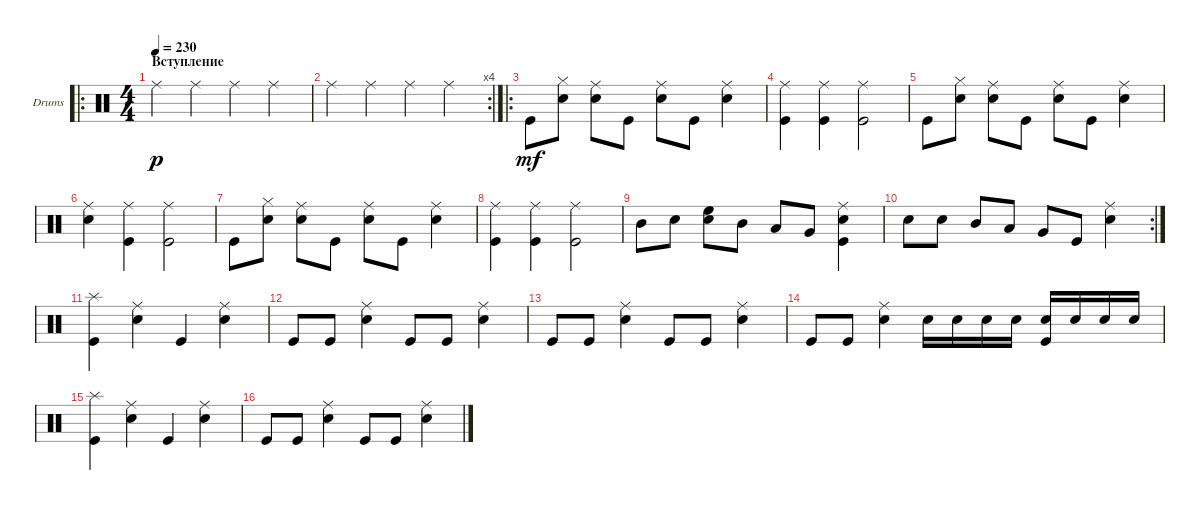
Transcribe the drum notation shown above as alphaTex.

\defaultSystemsLayout 4
\bracketExtendMode groupsimilarinstruments
\firstSystemTrackNameOrientation horizontal
\otherSystemsTrackNameOrientation horizontal
\track ("Drumkit" "Drums") {instrument percussion}
\staff {score}
\articulation defaults
\ro
\ts (4 4)
\section ("" "Вступление")
\tempo 230
\clef neutral
\ks c "Ride (middle)".4{dy p} "Ride (middle)".4 "Ride (middle)".4 "Ride (middle)".4
|
\rc 4 "Ride (middle)".4 "Ride (middle)".4 "Ride (middle)".4 "Ride (middle)".4
|
\ro "Kick (hit)".8{dy mf}
("Snare (hit) 2" "Hi-Hat (closed)").8 ("Snare (hit) 2" "Ride (middle)").8 "Kick (hit)".8 ("Snare (hit) 2" "Ride (middle)").8 "Kick (hit)".8 ("Snare (hit) 2" "Ride (middle)").4 |
("Kick (hit)" "Ride (middle)").4 ("Kick (hit)" "Ride (middle)").4 ("Kick (hit)" "Ride (middle)").2 |
"Kick (hit)".8 ("Snare (hit) 2" "Hi-Hat (closed)").8 ("Snare (hit) 2" "Ride (middle)").8 "Kick (hit)".8 ("Snare (hit) 2" "Ride (middle)").8 "Kick (hit)".8 ("Snare (hit) 2" "Ride (middle)").4 |
("Ride (middle)" "Snare (hit) 2").4 ("Kick (hit)" "Ride (middle)").4 ("Kick (hit)" "Ride (middle)").2 |
"Kick (hit)".8 ("Snare (hit) 2" "Hi-Hat (closed)").8 ("Snare (hit) 2" "Ride (middle)").8 "Kick (hit)".8 ("Snare (hit) 2" "Ride (middle)").8 "Kick (hit)".8 ("Snare (hit) 2" "Ride (middle)").4 |
("Kick (hit)" "Ride (middle)").4 ("Kick (hit)" "Ride (middle)").4 ("Kick (hit)" "Ride (middle)").2 |
"Mid Tom (hit)".8 "Snare (hit) 2".8 ("Snare (hit) 2" "High Floor Tom (hit)").8 "Mid Tom (hit)".8 "Low Tom (hit)".8 "Very Low Tom (hit)".8 ("Kick (hit)" "Ride (middle)" "Snare (hit) 2").4 |
\rc 2 "Snare (hit) 2".8 "Snare (hit) 2".8 "Mid Tom (hit)".8 "Low Tom (hit)".8 "Very Low Tom (hit)".8 "Kick (hit)".8
("Snare (hit) 2" "Ride (middle)").4 |
("Kick (hit)" "Splash (hit)").4 ("Snare (hit) 2" "Ride (middle)").4 "Kick (hit)".4 ("Snare (hit) 2" "Ride (middle)").4 |
"Kick (hit)".8 "Kick (hit)".8 ("Snare (hit) 2" "Ride (middle)").4 "Kick (hit)".8 "Kick (hit)".8 ("Snare (hit) 2" "Ride (middle)").4 |
"Kick (hit)".8 "Kick (hit)".8 ("Snare (hit) 2" "Ride (middle)").4 "Kick (hit)".8 "Kick (hit)".8 ("Snare (hit) 2" "Ride (middle)").4 |
"Kick (hit)".8 "Kick (hit)".8 ("Snare (hit) 2" "Ride (middle)").4 "Snare (hit) 2".16 "Snare (hit) 2".16 "Snare (hit) 2".16 "Snare (hit) 2".16 ("Snare (hit) 2" "Kick (hit)").16 "Snare (hit) 2".16 "Snare (hit) 2".16 "Snare (hit) 2".16 |
("Kick (hit)" "Splash (hit)").4 ("Snare (hit) 2" "Ride (middle)").4 "Kick (hit)".4 ("Snare (hit) 2" "Ride (middle)").4 |
"Kick (hit)".8 "Kick (hit)".8 ("Snare (hit) 2" "Ride (middle)").4 "Kick (hit)".8 "Kick (hit)".8 ("Snare (hit) 2" "Ride (middle)").4
